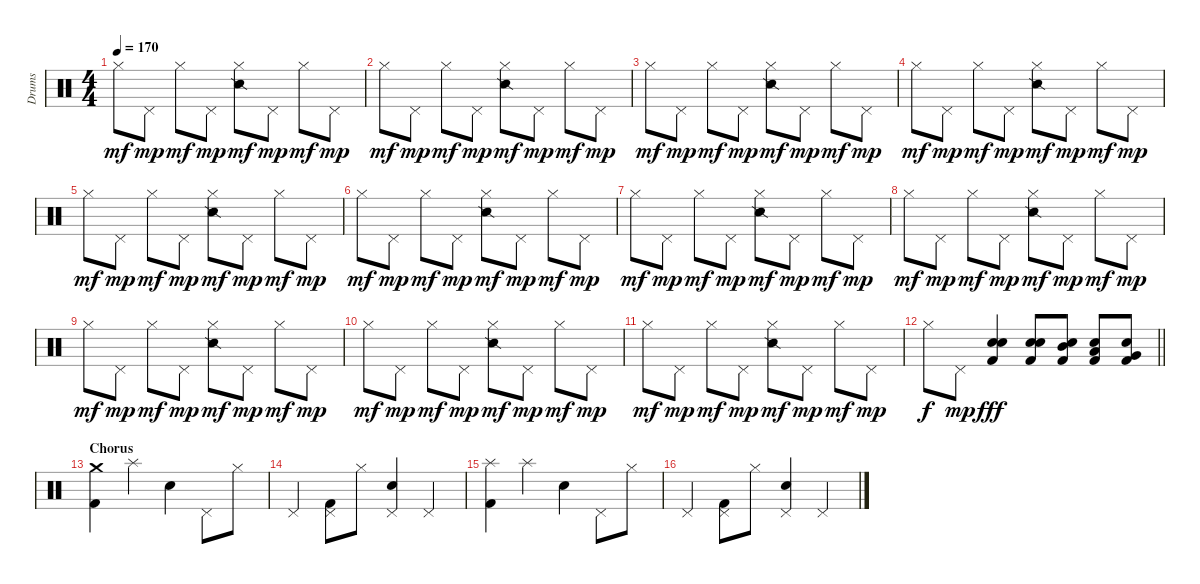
\track ("Drums" "Drums") {instrument percussion}
\staff {score}
\articulation defaults
\ts (4 4)
\tempo 170
\clef neutral
\ks c "Hi-Hat (closed)".8{dy mf} "Pedal Hi-Hat (hit)".8{dy mp} "Hi-Hat (closed)".8{dy mf} "Pedal Hi-Hat (hit)".8{dy mp}
("Snare (side stick) 2" "Hi-Hat (closed)").8{dy mf} "Pedal Hi-Hat (hit)".8{dy mp} "Hi-Hat (closed)".8{dy mf} "Pedal Hi-Hat (hit)".8{dy mp} |
"Hi-Hat (closed)".8{dy mf} "Pedal Hi-Hat (hit)".8{dy mp} "Hi-Hat (closed)".8{dy mf} "Pedal Hi-Hat (hit)".8{dy mp} ("Snare (side stick) 2" "Hi-Hat (closed)").8{dy mf} "Pedal Hi-Hat (hit)".8{dy mp} "Hi-Hat (closed)".8{dy mf} "Pedal Hi-Hat (hit)".8{dy mp} |
"Hi-Hat (closed)".8{dy mf} "Pedal Hi-Hat (hit)".8{dy mp} "Hi-Hat (closed)".8{dy mf} "Pedal Hi-Hat (hit)".8{dy mp} ("Snare (side stick) 2" "Hi-Hat (closed)").8{dy mf} "Pedal Hi-Hat (hit)".8{dy mp} "Hi-Hat (closed)".8{dy mf} "Pedal Hi-Hat (hit)".8{dy mp} |
"Hi-Hat (closed)".8{dy mf} "Pedal Hi-Hat (hit)".8{dy mp} "Hi-Hat (closed)".8{dy mf} "Pedal Hi-Hat (hit)".8{dy mp} ("Snare (side stick) 2" "Hi-Hat (closed)").8{dy mf} "Pedal Hi-Hat (hit)".8{dy mp} "Hi-Hat (closed)".8{dy mf} "Pedal Hi-Hat (hit)".8{dy mp} |
"Hi-Hat (closed)".8{dy mf} "Pedal Hi-Hat (hit)".8{dy mp} "Hi-Hat (closed)".8{dy mf} "Pedal Hi-Hat (hit)".8{dy mp} ("Snare (side stick) 2" "Hi-Hat (closed)").8{dy mf} "Pedal Hi-Hat (hit)".8{dy mp} "Hi-Hat (closed)".8{dy mf} "Pedal Hi-Hat (hit)".8{dy mp} |
"Hi-Hat (closed)".8{dy mf} "Pedal Hi-Hat (hit)".8{dy mp} "Hi-Hat (closed)".8{dy mf} "Pedal Hi-Hat (hit)".8{dy mp} ("Snare (side stick) 2" "Hi-Hat (closed)").8{dy mf} "Pedal Hi-Hat (hit)".8{dy mp} "Hi-Hat (closed)".8{dy mf} "Pedal Hi-Hat (hit)".8{dy mp} |
"Hi-Hat (closed)".8{dy mf} "Pedal Hi-Hat (hit)".8{dy mp} "Hi-Hat (closed)".8{dy mf} "Pedal Hi-Hat (hit)".8{dy mp} ("Snare (side stick) 2" "Hi-Hat (closed)").8{dy mf} "Pedal Hi-Hat (hit)".8{dy mp} "Hi-Hat (closed)".8{dy mf} "Pedal Hi-Hat (hit)".8{dy mp} |
"Hi-Hat (closed)".8{dy mf} "Pedal Hi-Hat (hit)".8{dy mp} "Hi-Hat (closed)".8{dy mf} "Pedal Hi-Hat (hit)".8{dy mp} ("Snare (side stick) 2" "Hi-Hat (closed)").8{dy mf} "Pedal Hi-Hat (hit)".8{dy mp} "Hi-Hat (closed)".8{dy mf} "Pedal Hi-Hat (hit)".8{dy mp} |
"Hi-Hat (closed)".8{dy mf} "Pedal Hi-Hat (hit)".8{dy mp} "Hi-Hat (closed)".8{dy mf} "Pedal Hi-Hat (hit)".8{dy mp} ("Snare (side stick) 2" "Hi-Hat (closed)").8{dy mf} "Pedal Hi-Hat (hit)".8{dy mp} "Hi-Hat (closed)".8{dy mf} "Pedal Hi-Hat (hit)".8{dy mp} |
"Hi-Hat (closed)".8{dy mf} "Pedal Hi-Hat (hit)".8{dy mp} "Hi-Hat (closed)".8{dy mf} "Pedal Hi-Hat (hit)".8{dy mp} ("Snare (side stick) 2" "Hi-Hat (closed)").8{dy mf} "Pedal Hi-Hat (hit)".8{dy mp} "Hi-Hat (closed)".8{dy mf} "Pedal Hi-Hat (hit)".8{dy mp} |
"Hi-Hat (closed)".8{dy mf} "Pedal Hi-Hat (hit)".8{dy mp} "Hi-Hat (closed)".8{dy mf} "Pedal Hi-Hat (hit)".8{dy mp} ("Snare (side stick) 2" "Hi-Hat (closed)").8{dy mf} "Pedal Hi-Hat (hit)".8{dy mp} "Hi-Hat (closed)".8{dy mf} "Pedal Hi-Hat (hit)".8{dy mp} |
\barLineRight lightlight "Hi-Hat (closed)".8{dy f} "Pedal Hi-Hat (hit)".8{dy mp}
("Kick (hit) 2" "Electric Snare (hit)" "Snare (hit) 2").4{dy fff} ("Kick (hit) 2" "Electric Snare (hit)" "Snare (hit) 2").8 ("Kick (hit) 2" "Mid Tom (hit)" "Snare (hit) 2").8 ("Kick (hit) 2" "Low Tom (hit)" "Snare (hit) 2").8 ("Kick (hit) 2" "Very Low Tom (hit)" "Snare (hit) 2").8 |
\section ("" "Chorus")
("Crash medium (hit)" "Kick (hit) 2").4{volume 10} "Splash (hit)".4 "Snare (hit) 2".4 "Pedal Hi-Hat (hit)".8 "Hi-Hat (closed)".8 |
"Pedal Hi-Hat (hit)".4 ("Pedal Hi-Hat (hit)" "Kick (hit) 2").8 "Hi-Hat (closed)".8 ("Pedal Hi-Hat (hit)" "Snare (hit) 2").4 "Pedal Hi-Hat (hit)".4 |
("Splash (hit)" "Kick (hit) 2").4 "Splash (hit)".4 "Snare (hit) 2".4 "Pedal Hi-Hat (hit)".8 "Hi-Hat (closed)".8 |
"Pedal Hi-Hat (hit)".4 ("Pedal Hi-Hat (hit)" "Kick (hit) 2").8 "Hi-Hat (closed)".8 ("Pedal Hi-Hat (hit)" "Snare (hit) 2").4 "Pedal Hi-Hat (hit)".4
